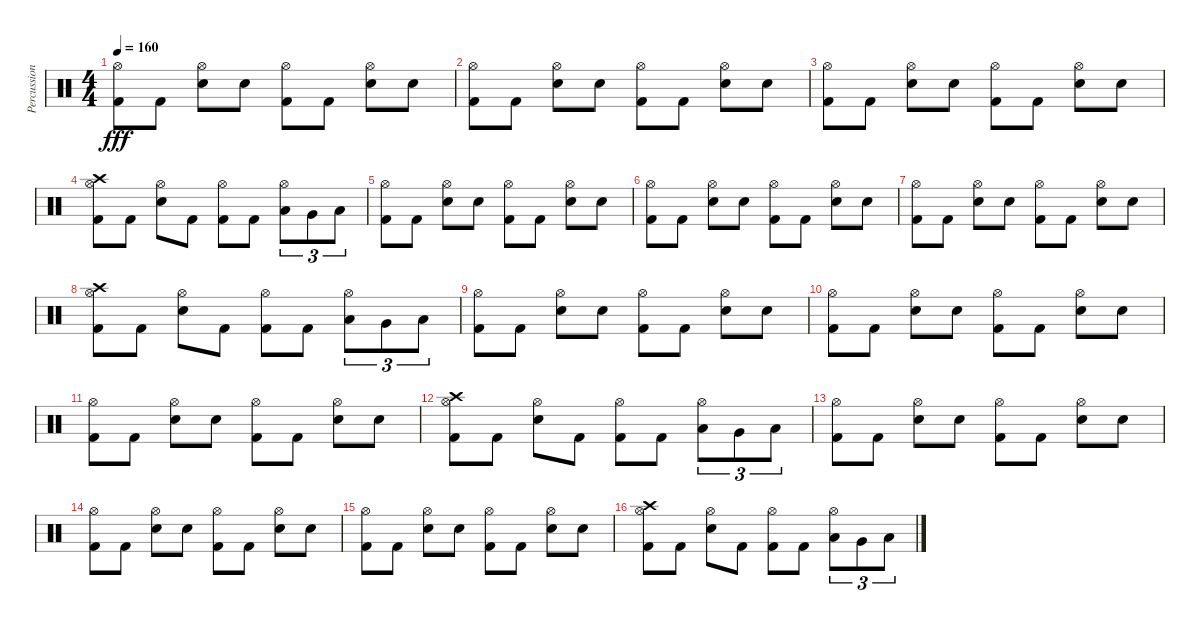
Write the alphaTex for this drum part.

\track ("Percussion" "Percussion") {instrument percussion}
\staff {score}
\articulation defaults
\ts (4 4)
\tempo 160
\clef neutral
\ks c
("Kick (hit) 2" "Hi-Hat (open)").8{dy fff} "Kick (hit) 2".8 ("Snare (hit) 2" "Hi-Hat (open)").8 "Snare (hit) 2".8 ("Kick (hit) 2" "Hi-Hat (open)").8 "Kick (hit) 2".8 ("Snare (hit) 2" "Hi-Hat (open)").8 "Snare (hit) 2".8 |
("Kick (hit) 2" "Hi-Hat (open)").8 "Kick (hit) 2".8 ("Snare (hit) 2" "Hi-Hat (open)").8 "Snare (hit) 2".8 ("Kick (hit) 2" "Hi-Hat (open)").8 "Kick (hit) 2".8 ("Snare (hit) 2" "Hi-Hat (open)").8 "Snare (hit) 2".8 |
("Kick (hit) 2" "Hi-Hat (open)").8 "Kick (hit) 2".8 ("Snare (hit) 2" "Hi-Hat (open)").8 "Snare (hit) 2".8 ("Kick (hit) 2" "Hi-Hat (open)").8 "Kick (hit) 2".8 ("Snare (hit) 2" "Hi-Hat (open)").8 "Snare (hit) 2".8 |
("Kick (hit) 2" "Hi-Hat (open)" "Crash high (hit)").8 "Kick (hit) 2".8 ("Snare (hit) 2" "Hi-Hat (open)").8 "Kick (hit) 2".8 ("Kick (hit) 2" "Hi-Hat (open)").8 "Kick (hit) 2".8 ("Low Tom (hit)" "Hi-Hat (open)").8{tu (3 2)} "Very Low Tom (hit)".8{tu (3 2)} "Low Floor Tom (hit)".8{tu (3 2)} |
("Kick (hit) 2" "Hi-Hat (open)").8 "Kick (hit) 2".8 ("Snare (hit) 2" "Hi-Hat (open)").8 "Snare (hit) 2".8 ("Kick (hit) 2" "Hi-Hat (open)").8 "Kick (hit) 2".8 ("Snare (hit) 2" "Hi-Hat (open)").8 "Snare (hit) 2".8 |
("Kick (hit) 2" "Hi-Hat (open)").8 "Kick (hit) 2".8 ("Snare (hit) 2" "Hi-Hat (open)").8 "Snare (hit) 2".8 ("Kick (hit) 2" "Hi-Hat (open)").8 "Kick (hit) 2".8 ("Snare (hit) 2" "Hi-Hat (open)").8 "Snare (hit) 2".8 |
("Kick (hit) 2" "Hi-Hat (open)").8 "Kick (hit) 2".8 ("Snare (hit) 2" "Hi-Hat (open)").8 "Snare (hit) 2".8 ("Kick (hit) 2" "Hi-Hat (open)").8 "Kick (hit) 2".8 ("Snare (hit) 2" "Hi-Hat (open)").8 "Snare (hit) 2".8 |
("Kick (hit) 2" "Hi-Hat (open)" "Crash high (hit)").8 "Kick (hit) 2".8 ("Snare (hit) 2" "Hi-Hat (open)").8 "Kick (hit) 2".8 ("Kick (hit) 2" "Hi-Hat (open)").8 "Kick (hit) 2".8 ("Low Tom (hit)" "Hi-Hat (open)").8{tu (3 2)} "Very Low Tom (hit)".8{tu (3 2)} "Low Floor Tom (hit)".8{tu (3 2)} |
("Kick (hit) 2" "Hi-Hat (open)").8 "Kick (hit) 2".8 ("Snare (hit) 2" "Hi-Hat (open)").8 "Snare (hit) 2".8 ("Kick (hit) 2" "Hi-Hat (open)").8 "Kick (hit) 2".8 ("Snare (hit) 2" "Hi-Hat (open)").8 "Snare (hit) 2".8 |
("Kick (hit) 2" "Hi-Hat (open)").8 "Kick (hit) 2".8 ("Snare (hit) 2" "Hi-Hat (open)").8 "Snare (hit) 2".8 ("Kick (hit) 2" "Hi-Hat (open)").8 "Kick (hit) 2".8 ("Snare (hit) 2" "Hi-Hat (open)").8 "Snare (hit) 2".8 |
("Kick (hit) 2" "Hi-Hat (open)").8 "Kick (hit) 2".8 ("Snare (hit) 2" "Hi-Hat (open)").8 "Snare (hit) 2".8 ("Kick (hit) 2" "Hi-Hat (open)").8 "Kick (hit) 2".8 ("Snare (hit) 2" "Hi-Hat (open)").8 "Snare (hit) 2".8 |
("Kick (hit) 2" "Hi-Hat (open)" "Crash high (hit)").8 "Kick (hit) 2".8 ("Snare (hit) 2" "Hi-Hat (open)").8 "Kick (hit) 2".8 ("Kick (hit) 2" "Hi-Hat (open)").8 "Kick (hit) 2".8 ("Low Tom (hit)" "Hi-Hat (open)").8{tu (3 2)} "Very Low Tom (hit)".8{tu (3 2)} "Low Floor Tom (hit)".8{tu (3 2)} |
("Kick (hit) 2" "Hi-Hat (open)").8 "Kick (hit) 2".8 ("Snare (hit) 2" "Hi-Hat (open)").8 "Snare (hit) 2".8 ("Kick (hit) 2" "Hi-Hat (open)").8 "Kick (hit) 2".8 ("Snare (hit) 2" "Hi-Hat (open)").8 "Snare (hit) 2".8 |
("Kick (hit) 2" "Hi-Hat (open)").8 "Kick (hit) 2".8 ("Snare (hit) 2" "Hi-Hat (open)").8 "Snare (hit) 2".8 ("Kick (hit) 2" "Hi-Hat (open)").8 "Kick (hit) 2".8 ("Snare (hit) 2" "Hi-Hat (open)").8 "Snare (hit) 2".8 |
("Kick (hit) 2" "Hi-Hat (open)").8 "Kick (hit) 2".8 ("Snare (hit) 2" "Hi-Hat (open)").8 "Snare (hit) 2".8 ("Kick (hit) 2" "Hi-Hat (open)").8 "Kick (hit) 2".8 ("Snare (hit) 2" "Hi-Hat (open)").8 "Snare (hit) 2".8 |
("Kick (hit) 2" "Hi-Hat (open)" "Crash high (hit)").8 "Kick (hit) 2".8 ("Snare (hit) 2" "Hi-Hat (open)").8 "Kick (hit) 2".8 ("Kick (hit) 2" "Hi-Hat (open)").8 "Kick (hit) 2".8 ("Low Tom (hit)" "Hi-Hat (open)").8{tu (3 2)} "Very Low Tom (hit)".8{tu (3 2)} "Low Floor Tom (hit)".8{tu (3 2)}
